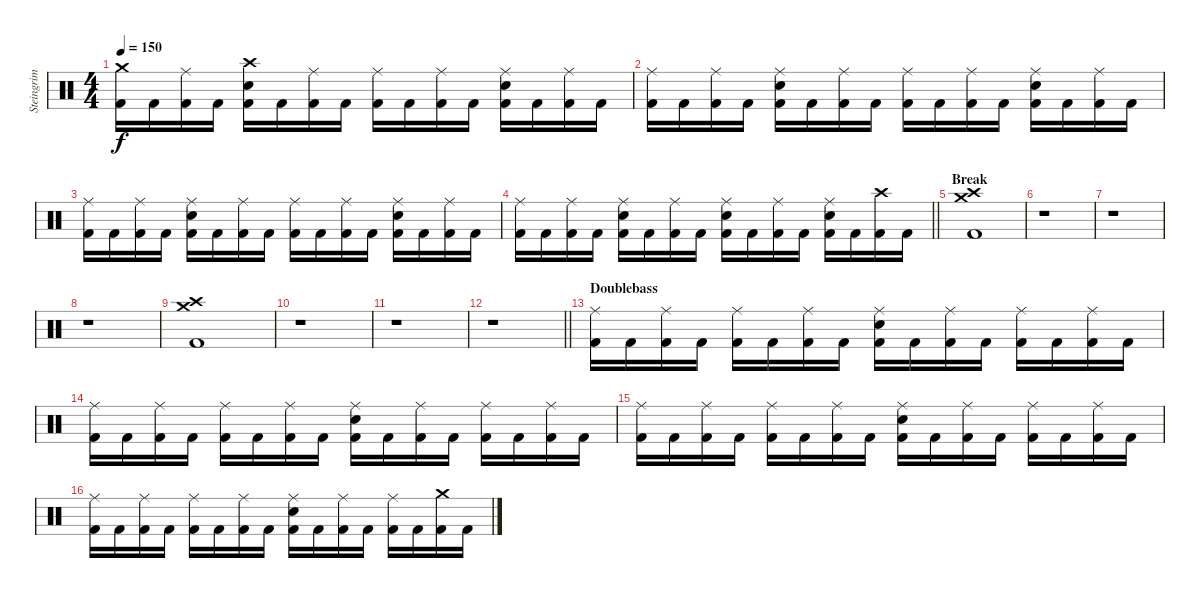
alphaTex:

\track ("Steingrim" "Steingrim") {instrument percussion}
\staff {score}
\articulation defaults
\ts (4 4)
\tempo 150
\clef neutral
\ks c
("Crash medium (hit)" "Kick (hit) 2").16{dy f} "Kick (hit) 2".16 ("Ride (middle)" "Kick (hit) 2").16 "Kick (hit) 2".16 ("Crash high (hit)" "Snare (hit) 2" "Kick (hit) 2").16 "Kick (hit) 2".16 ("Ride (middle)" "Kick (hit) 2").16 "Kick (hit) 2".16 ("Ride (middle)" "Kick (hit) 2").16 "Kick (hit) 2".16 ("Ride (middle)" "Kick (hit) 2").16 "Kick (hit) 2".16 ("Ride (middle)" "Snare (hit) 2" "Kick (hit) 2").16 "Kick (hit) 2".16 ("Ride (middle)" "Kick (hit) 2").16 "Kick (hit) 2".16 |
("Ride (middle)" "Kick (hit) 2").16 "Kick (hit) 2".16 ("Ride (middle)" "Kick (hit) 2").16 "Kick (hit) 2".16 ("Ride (middle)" "Snare (hit) 2" "Kick (hit) 2").16 "Kick (hit) 2".16 ("Ride (middle)" "Kick (hit) 2").16 "Kick (hit) 2".16 ("Ride (middle)" "Kick (hit) 2").16 "Kick (hit) 2".16 ("Ride (middle)" "Kick (hit) 2").16 "Kick (hit) 2".16 ("Ride (middle)" "Snare (hit) 2" "Kick (hit) 2").16 "Kick (hit) 2".16 ("Ride (middle)" "Kick (hit) 2").16 "Kick (hit) 2".16 |
("Ride (middle)" "Kick (hit) 2").16 "Kick (hit) 2".16 ("Ride (middle)" "Kick (hit) 2").16 "Kick (hit) 2".16 ("Ride (middle)" "Snare (hit) 2" "Kick (hit) 2").16 "Kick (hit) 2".16 ("Ride (middle)" "Kick (hit) 2").16 "Kick (hit) 2".16 ("Ride (middle)" "Kick (hit) 2").16 "Kick (hit) 2".16 ("Ride (middle)" "Kick (hit) 2").16 "Kick (hit) 2".16 ("Ride (middle)" "Snare (hit) 2" "Kick (hit) 2").16 "Kick (hit) 2".16 ("Ride (middle)" "Kick (hit) 2").16 "Kick (hit) 2".16 |
\barLineRight lightlight
("Ride (middle)" "Kick (hit) 2").16 "Kick (hit) 2".16 ("Ride (middle)" "Kick (hit) 2").16 "Kick (hit) 2".16 ("Ride (middle)" "Snare (hit) 2" "Kick (hit) 2").16 "Kick (hit) 2".16 ("Ride (middle)" "Kick (hit) 2").16 "Kick (hit) 2".16 ("Ride (middle)" "Snare (hit) 2" "Kick (hit) 2").16 "Kick (hit) 2".16 ("Ride (middle)" "Kick (hit) 2").16 "Kick (hit) 2".16 ("Ride (middle)" "Snare (hit) 2" "Kick (hit) 2").16 "Kick (hit) 2".16 ("Crash high (hit)" "Kick (hit) 2").16 "Kick (hit) 2".16 |
\section ("" "Break")
("Crash high (hit)" "Crash medium (hit)" "Kick (hit) 2").1 |
r.1 |
r.1 |
r.1 |
("Crash high (hit)" "Crash medium (hit)" "Kick (hit) 2").1 |
r.1 |
r.1 |
\barLineRight lightlight
r.1 |
\section ("" "Doublebass")
("Ride (middle)" "Kick (hit) 2").16 "Kick (hit) 2".16 ("Ride (middle)" "Kick (hit) 2").16 "Kick (hit) 2".16 ("Ride (middle)" "Kick (hit) 2").16 "Kick (hit) 2".16 ("Ride (middle)" "Kick (hit) 2").16 "Kick (hit) 2".16 ("Ride (middle)" "Snare (hit) 2" "Kick (hit) 2").16 "Kick (hit) 2".16 ("Ride (middle)" "Kick (hit) 2").16 "Kick (hit) 2".16 ("Ride (middle)" "Kick (hit) 2").16 "Kick (hit) 2".16 ("Ride (middle)" "Kick (hit) 2").16 "Kick (hit) 2".16 |
("Ride (middle)" "Kick (hit) 2").16 "Kick (hit) 2".16 ("Ride (middle)" "Kick (hit) 2").16 "Kick (hit) 2".16 ("Ride (middle)" "Kick (hit) 2").16 "Kick (hit) 2".16 ("Ride (middle)" "Kick (hit) 2").16 "Kick (hit) 2".16 ("Ride (middle)" "Snare (hit) 2" "Kick (hit) 2").16 "Kick (hit) 2".16 ("Ride (middle)" "Kick (hit) 2").16 "Kick (hit) 2".16 ("Ride (middle)" "Kick (hit) 2").16 "Kick (hit) 2".16 ("Ride (middle)" "Kick (hit) 2").16 "Kick (hit) 2".16 |
("Ride (middle)" "Kick (hit) 2").16 "Kick (hit) 2".16 ("Ride (middle)" "Kick (hit) 2").16 "Kick (hit) 2".16 ("Ride (middle)" "Kick (hit) 2").16 "Kick (hit) 2".16 ("Ride (middle)" "Kick (hit) 2").16 "Kick (hit) 2".16 ("Ride (middle)" "Snare (hit) 2" "Kick (hit) 2").16 "Kick (hit) 2".16 ("Ride (middle)" "Kick (hit) 2").16 "Kick (hit) 2".16 ("Ride (middle)" "Kick (hit) 2").16 "Kick (hit) 2".16 ("Ride (middle)" "Kick (hit) 2").16 "Kick (hit) 2".16 |
("Ride (middle)" "Kick (hit) 2").16 "Kick (hit) 2".16 ("Ride (middle)" "Kick (hit) 2").16 "Kick (hit) 2".16 ("Ride (middle)" "Kick (hit) 2").16 "Kick (hit) 2".16 ("Ride (middle)" "Kick (hit) 2").16 "Kick (hit) 2".16 ("Ride (middle)" "Snare (hit) 2" "Kick (hit) 2").16 "Kick (hit) 2".16 ("Ride (middle)" "Kick (hit) 2").16 "Kick (hit) 2".16 ("Ride (middle)" "Kick (hit) 2").16 "Kick (hit) 2".16 ("Crash medium (hit)" "Kick (hit) 2").16 "Kick (hit) 2".16
